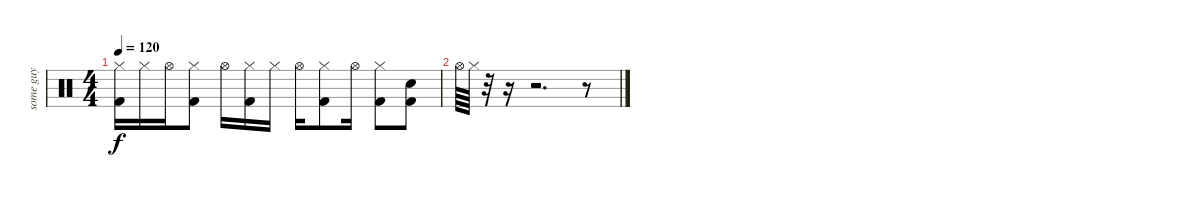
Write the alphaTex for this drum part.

\track ("some guy" "some guy") {instrument percussion}
\staff {score}
\articulation defaults
\ts (4 4)
\tempo 120
\clef neutral
\ks c
("Hi-Hat (closed)" "Kick (hit) 2").16{dy f} "Hi-Hat (closed)".16 "Hi-Hat (open)".16 ("Hi-Hat (closed)" "Kick (hit) 2").8 "Hi-Hat (open)".16 ("Hi-Hat (closed)" "Kick (hit) 2").16 "Hi-Hat (closed)".16 "Hi-Hat (open)".16 ("Hi-Hat (closed)" "Kick (hit) 2").8 "Hi-Hat (open)".16 ("Hi-Hat (closed)" "Kick (hit) 2").8 ("Electric Snare (hit)" "Kick (hit) 2").8 |
"Hi-Hat (open)".64 "Hi-Hat (closed)".64 r.32 r.16 r.2{d} r.8
